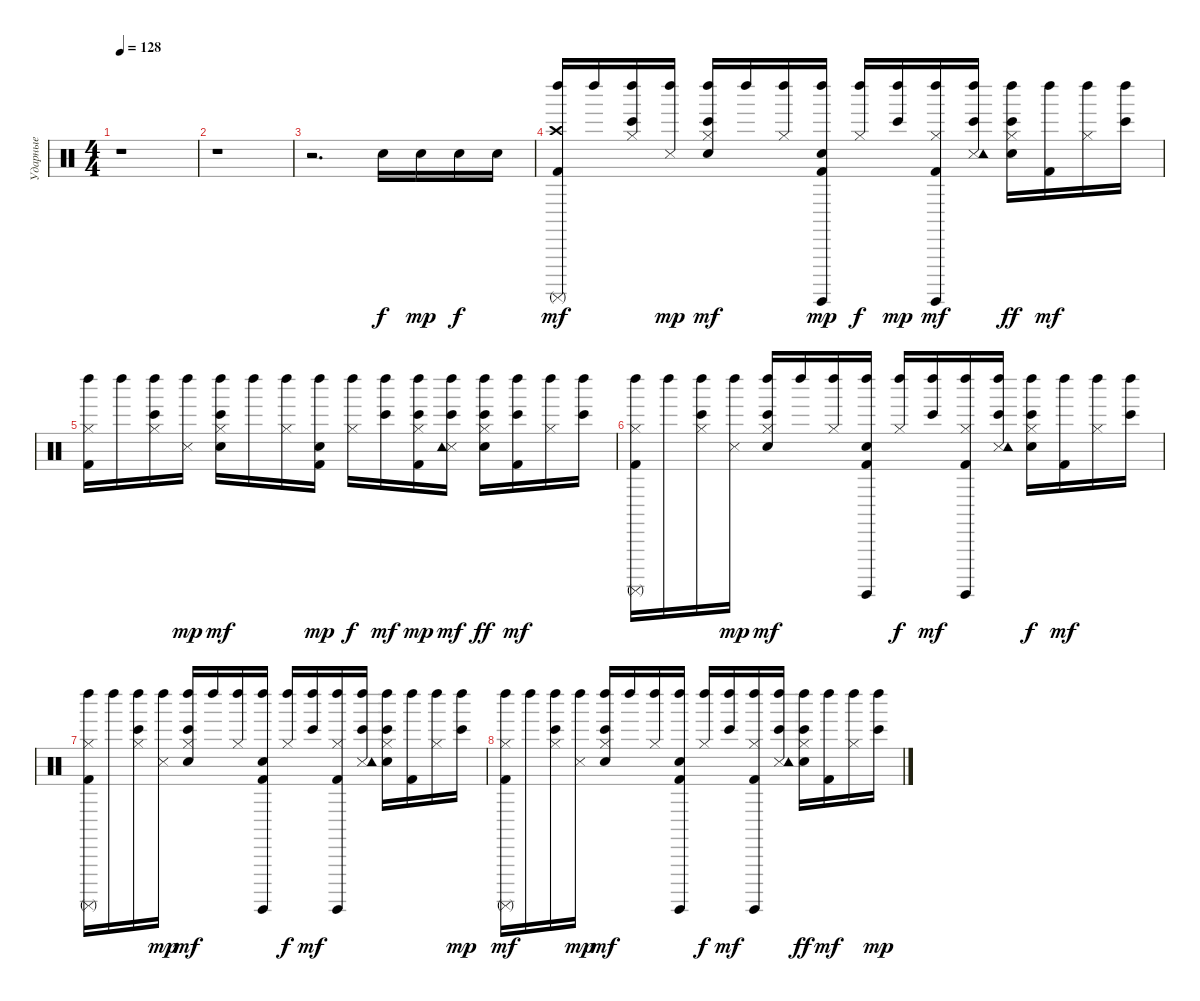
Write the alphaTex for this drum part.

\track ("Ударные" "Ударные") {instrument percussion}
\staff {score}
\articulation defaults
\ts (4 4)
\tempo 128
\clef neutral
\ks c
r.1{dy mp} |
r.1 |
r.2{d} "Electric Snare (hit)".16{dy f} "Electric Snare (hit)".16{dy mp} "Electric Snare (hit)".16{dy f} "Electric Snare (hit)".16 |
("Kick (hit) 2" "Crash high (hit)" "Left Maraca (hit)" "Surdo (mute)").16{dy mf} "Left Maraca (hit)".16 ("Bongo High (hit)" "Hi-Hat (closed)" "Left Maraca (hit)").16 ("Snare (side stick) 3" "Left Maraca (hit)").16{dy mp} ("Bongo High (hit)" "Electric Snare (hit)" "Hi-Hat (closed)" "Left Maraca (hit)").16{dy mf} "Left Maraca (hit)".16 ("Hi-Hat (closed)" "Left Maraca (hit)").16 ("Kick (hit) 2" "Electric Snare (hit)" "Left Maraca (hit)" "Surdo (hit)").16{dy mp} ("Hi-Hat (closed)" "Left Maraca (hit)").16{dy f} ("Bongo High (hit)" "Left Maraca (hit)").16{dy mp} ("Kick (hit) 2" "Hi-Hat (closed)" "Left Maraca (hit)" "Surdo (hit)").16{dy mf} ("Bongo High (hit)" "Snare (side stick) 3" "Tambourine (hit)" "Left Maraca (hit)").16 ("Bongo High (hit)" "Electric Snare (hit)" "Hi-Hat (closed)" "Left Maraca (hit)").16{dy ff} ("Kick (hit) 2" "Left Maraca (hit)").16{dy mf} ("Hi-Hat (closed)" "Left Maraca (hit)").16 ("Bongo High (hit)" "Left Maraca (hit)").16 |
("Kick (hit) 2" "Hi-Hat (closed)" "Left Maraca (hit)").16 "Left Maraca (hit)".16 ("Bongo High (hit)" "Hi-Hat (closed)" "Left Maraca (hit)").16 ("Snare (side stick) 3" "Left Maraca (hit)").16{dy mp} ("Bongo High (hit)" "Electric Snare (hit)" "Hi-Hat (closed)" "Left Maraca (hit)").16{dy mf} "Left Maraca (hit)".16 ("Hi-Hat (closed)" "Left Maraca (hit)").16 ("Kick (hit) 2" "Electric Snare (hit)" "Left Maraca (hit)").16{dy mp} ("Hi-Hat (closed)" "Left Maraca (hit)").16{dy f} ("Bongo High (hit)" "Left Maraca (hit)").16{dy mf} ("Bongo High (hit)" "Kick (hit) 2" "Hi-Hat (closed)" "Left Maraca (hit)").16{dy mp} ("Bongo High (hit)" "Snare (side stick) 3" "Tambourine (hit)" "Left Maraca (hit)").16{dy mf} ("Bongo High (hit)" "Electric Snare (hit)" "Hi-Hat (closed)" "Left Maraca (hit)").16{dy ff} ("Bongo High (hit)" "Kick (hit) 2" "Left Maraca (hit)").16{dy mf} ("Hi-Hat (closed)" "Left Maraca (hit)").16 ("Bongo High (hit)" "Left Maraca (hit)").16 |
("Kick (hit) 2" "Hi-Hat (closed)" "Left Maraca (hit)" "Surdo (mute)").16 "Left Maraca (hit)".16 ("Bongo High (hit)" "Hi-Hat (closed)" "Left Maraca (hit)").16 ("Snare (side stick) 3" "Left Maraca (hit)").16{dy mp} ("Bongo High (hit)" "Electric Snare (hit)" "Hi-Hat (closed)" "Left Maraca (hit)").16{dy mf} "Left Maraca (hit)".16 ("Hi-Hat (closed)" "Left Maraca (hit)").16 ("Kick (hit) 2" "Electric Snare (hit)" "Left Maraca (hit)" "Surdo (hit)").16 ("Hi-Hat (closed)" "Left Maraca (hit)").16{dy f} ("Bongo High (hit)" "Left Maraca (hit)").16{dy mf} ("Kick (hit) 2" "Hi-Hat (closed)" "Left Maraca (hit)" "Surdo (hit)").16 ("Bongo High (hit)" "Snare (side stick) 3" "Tambourine (hit)" "Left Maraca (hit)").16 ("Bongo High (hit)" "Electric Snare (hit)" "Hi-Hat (closed)" "Left Maraca (hit)").16{dy f} ("Kick (hit) 2" "Left Maraca (hit)").16{dy mf} ("Hi-Hat (closed)" "Left Maraca (hit)").16 ("Bongo High (hit)" "Left Maraca (hit)").16 |
("Kick (hit) 2" "Hi-Hat (closed)" "Left Maraca (hit)" "Surdo (mute)").16 "Left Maraca (hit)".16 ("Bongo High (hit)" "Hi-Hat (closed)" "Left Maraca (hit)").16 ("Snare (side stick) 3" "Left Maraca (hit)").16{dy mp} ("Bongo High (hit)" "Electric Snare (hit)" "Hi-Hat (closed)" "Left Maraca (hit)").16{dy mf} "Left Maraca (hit)".16 ("Hi-Hat (closed)" "Left Maraca (hit)").16 ("Kick (hit) 2" "Electric Snare (hit)" "Left Maraca (hit)" "Surdo (hit)").16 ("Hi-Hat (closed)" "Left Maraca (hit)").16{dy f} ("Bongo High (hit)" "Left Maraca (hit)").16{dy mf} ("Kick (hit) 2" "Hi-Hat (closed)" "Left Maraca (hit)" "Surdo (hit)").16 ("Bongo High (hit)" "Snare (side stick) 3" "Tambourine (hit)" "Left Maraca (hit)").16 ("Bongo High (hit)" "Electric Snare (hit)" "Hi-Hat (closed)" "Left Maraca (hit)").16 ("Kick (hit) 2" "Left Maraca (hit)").16 ("Hi-Hat (closed)" "Left Maraca (hit)").16 ("Bongo High (hit)" "Left Maraca (hit)").16{dy mp} |
("Kick (hit) 2" "Hi-Hat (closed)" "Left Maraca (hit)" "Surdo (mute)").16{dy mf} "Left Maraca (hit)".16 ("Bongo High (hit)" "Hi-Hat (closed)" "Left Maraca (hit)").16 ("Snare (side stick) 3" "Left Maraca (hit)").16{dy mp} ("Bongo High (hit)" "Electric Snare (hit)" "Hi-Hat (closed)" "Left Maraca (hit)").16{dy mf} "Left Maraca (hit)".16 ("Hi-Hat (closed)" "Left Maraca (hit)").16 ("Kick (hit) 2" "Electric Snare (hit)" "Left Maraca (hit)" "Surdo (hit)").16 ("Hi-Hat (closed)" "Left Maraca (hit)").16{dy f} ("Bongo High (hit)" "Left Maraca (hit)").16{dy mf} ("Kick (hit) 2" "Hi-Hat (closed)" "Left Maraca (hit)" "Surdo (hit)").16 ("Bongo High (hit)" "Snare (side stick) 3" "Tambourine (hit)" "Left Maraca (hit)").16 ("Bongo High (hit)" "Electric Snare (hit)" "Hi-Hat (closed)" "Left Maraca (hit)").16{dy ff} ("Kick (hit) 2" "Left Maraca (hit)").16{dy mf} ("Hi-Hat (closed)" "Left Maraca (hit)").16 ("Bongo High (hit)" "Left Maraca (hit)").16{dy mp}
